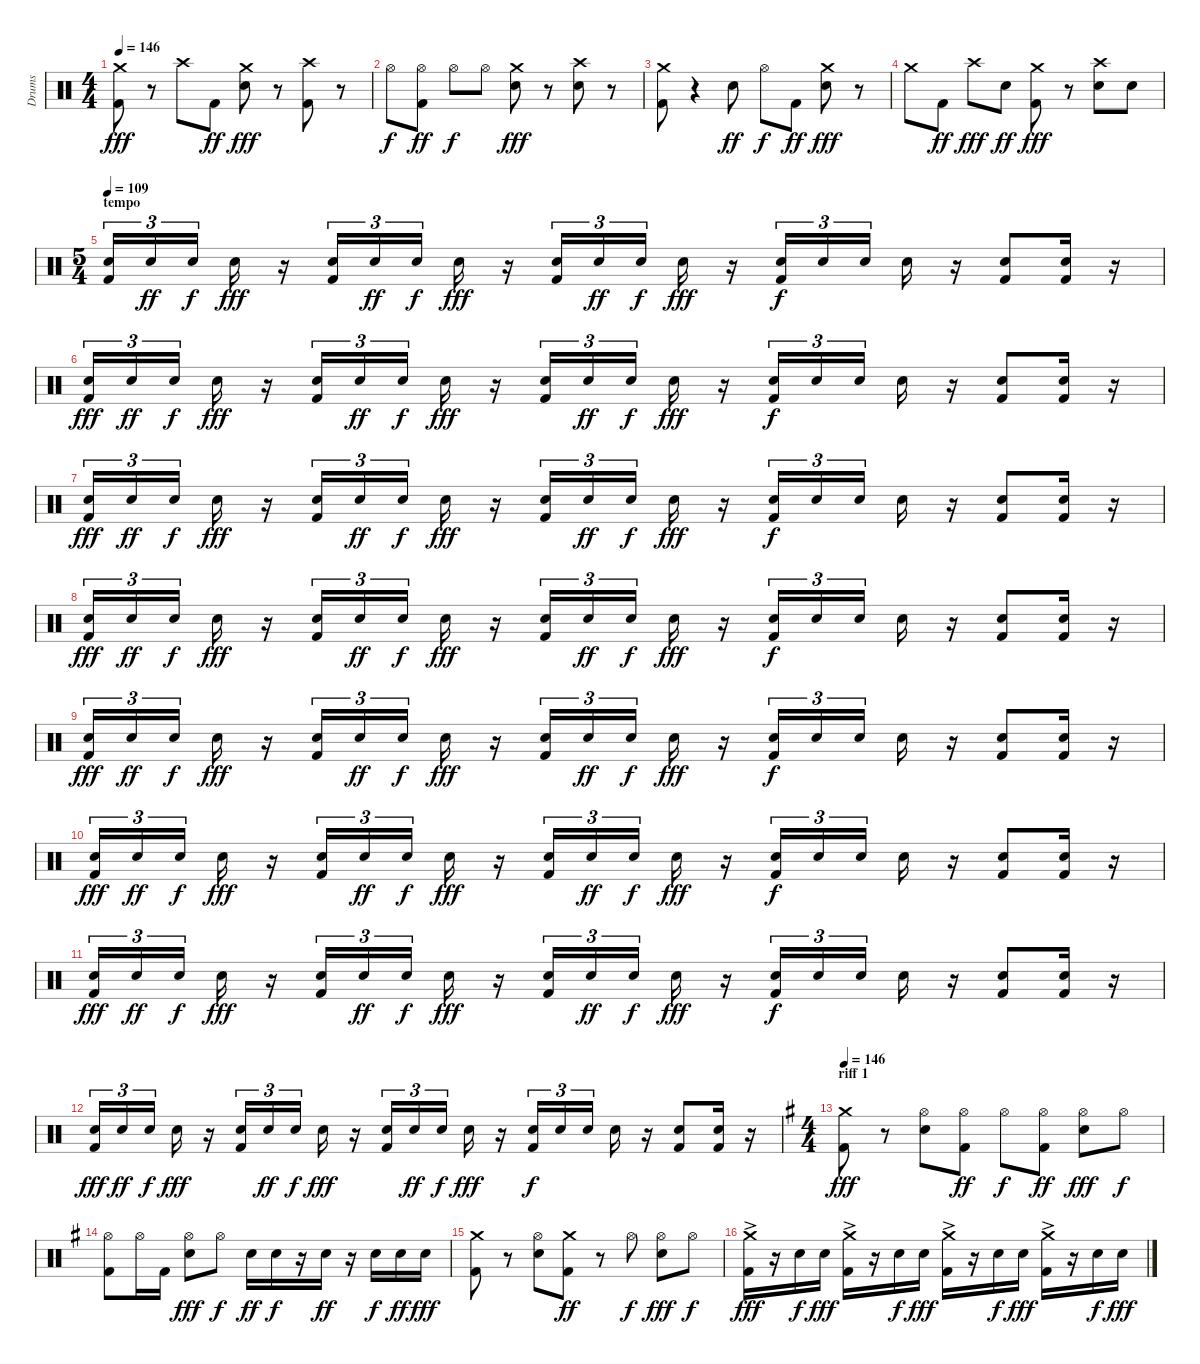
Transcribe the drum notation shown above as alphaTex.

\track ("Drums" "Drums") {instrument percussion}
\staff {score}
\articulation defaults
\ts (4 4)
\tempo 146
\clef neutral
\ks c
("Kick (hit) 2" "Crash medium (hit)").8{dy fff} r.8 "Crash high (hit)".8 "Kick (hit) 2".8{dy ff} ("Snare (hit) 2" "Crash medium (hit)").8{dy fff} r.8 ("Kick (hit) 2" "Crash high (hit)").8 r.8 |
"Hi-Hat (open)".8{dy f} ("Kick (hit) 2" "Hi-Hat (open)").8{dy ff} "Hi-Hat (open)".8{dy f} "Hi-Hat (open)".8 ("Snare (hit) 2" "Crash medium (hit)").8{dy fff} r.8 ("Snare (hit) 2" "Crash high (hit)").8 r.8 |
("Kick (hit) 2" "Crash medium (hit)").8 r.4 "Snare (hit) 2".8{dy ff} "Hi-Hat (open)".8{dy f} "Kick (hit) 2".8{dy ff} ("Snare (hit) 2" "Crash medium (hit)").8{dy fff} r.8 |
"Crash medium (hit)".8 "Kick (hit) 2".8{dy ff} "Crash high (hit)".8{dy fff} "Snare (hit) 2".8{dy ff} ("Kick (hit) 2" "Crash medium (hit)").8{dy fff} r.8 ("Snare (hit) 2" "Crash high (hit)").8 "Snare (hit) 2".8 |
\ts (5 4)
\section ("" "tempo")
\tempo 109
("Snare (hit) 2" "Kick (hit) 2").16{tu (3 2)} "Snare (hit) 2".16{tu (3 2) dy ff} "Snare (hit) 2".16{tu (3 2) dy f} "Snare (hit) 2".16{dy fff} r.16 ("Snare (hit) 2" "Kick (hit) 2").16{tu (3 2)} "Snare (hit) 2".16{tu (3 2) dy ff} "Snare (hit) 2".16{tu (3 2) dy f} "Snare (hit) 2".16{dy fff} r.16 ("Snare (hit) 2" "Kick (hit) 2").16{tu (3 2)} "Snare (hit) 2".16{tu (3 2) dy ff} "Snare (hit) 2".16{tu (3 2) dy f} "Snare (hit) 2".16{dy fff} r.16 ("Snare (hit) 2" "Kick (hit) 2").16{tu (3 2) dy f} "Snare (hit) 2".16{tu (3 2)} "Snare (hit) 2".16{tu (3 2)} "Snare (hit) 2".16 r.16 ("Snare (hit) 2" "Kick (hit) 2").8 ("Snare (hit) 2" "Kick (hit) 2").16 r.16 |
("Snare (hit) 2" "Kick (hit) 2").16{tu (3 2) dy fff} "Snare (hit) 2".16{tu (3 2) dy ff} "Snare (hit) 2".16{tu (3 2) dy f} "Snare (hit) 2".16{dy fff} r.16 ("Snare (hit) 2" "Kick (hit) 2").16{tu (3 2)} "Snare (hit) 2".16{tu (3 2) dy ff} "Snare (hit) 2".16{tu (3 2) dy f} "Snare (hit) 2".16{dy fff} r.16 ("Snare (hit) 2" "Kick (hit) 2").16{tu (3 2)} "Snare (hit) 2".16{tu (3 2) dy ff} "Snare (hit) 2".16{tu (3 2) dy f} "Snare (hit) 2".16{dy fff} r.16 ("Snare (hit) 2" "Kick (hit) 2").16{tu (3 2) dy f} "Snare (hit) 2".16{tu (3 2)} "Snare (hit) 2".16{tu (3 2)} "Snare (hit) 2".16 r.16 ("Snare (hit) 2" "Kick (hit) 2").8 ("Snare (hit) 2" "Kick (hit) 2").16 r.16 |
("Snare (hit) 2" "Kick (hit) 2").16{tu (3 2) dy fff} "Snare (hit) 2".16{tu (3 2) dy ff} "Snare (hit) 2".16{tu (3 2) dy f} "Snare (hit) 2".16{dy fff} r.16 ("Snare (hit) 2" "Kick (hit) 2").16{tu (3 2)} "Snare (hit) 2".16{tu (3 2) dy ff} "Snare (hit) 2".16{tu (3 2) dy f} "Snare (hit) 2".16{dy fff} r.16 ("Snare (hit) 2" "Kick (hit) 2").16{tu (3 2)} "Snare (hit) 2".16{tu (3 2) dy ff} "Snare (hit) 2".16{tu (3 2) dy f} "Snare (hit) 2".16{dy fff} r.16 ("Snare (hit) 2" "Kick (hit) 2").16{tu (3 2) dy f} "Snare (hit) 2".16{tu (3 2)} "Snare (hit) 2".16{tu (3 2)} "Snare (hit) 2".16 r.16 ("Snare (hit) 2" "Kick (hit) 2").8 ("Snare (hit) 2" "Kick (hit) 2").16 r.16 |
("Snare (hit) 2" "Kick (hit) 2").16{tu (3 2) dy fff} "Snare (hit) 2".16{tu (3 2) dy ff} "Snare (hit) 2".16{tu (3 2) dy f} "Snare (hit) 2".16{dy fff} r.16 ("Snare (hit) 2" "Kick (hit) 2").16{tu (3 2)} "Snare (hit) 2".16{tu (3 2) dy ff} "Snare (hit) 2".16{tu (3 2) dy f} "Snare (hit) 2".16{dy fff} r.16 ("Snare (hit) 2" "Kick (hit) 2").16{tu (3 2)} "Snare (hit) 2".16{tu (3 2) dy ff} "Snare (hit) 2".16{tu (3 2) dy f} "Snare (hit) 2".16{dy fff} r.16 ("Snare (hit) 2" "Kick (hit) 2").16{tu (3 2) dy f} "Snare (hit) 2".16{tu (3 2)} "Snare (hit) 2".16{tu (3 2)} "Snare (hit) 2".16 r.16 ("Snare (hit) 2" "Kick (hit) 2").8 ("Snare (hit) 2" "Kick (hit) 2").16 r.16 |
("Snare (hit) 2" "Kick (hit) 2").16{tu (3 2) dy fff} "Snare (hit) 2".16{tu (3 2) dy ff} "Snare (hit) 2".16{tu (3 2) dy f} "Snare (hit) 2".16{dy fff} r.16 ("Snare (hit) 2" "Kick (hit) 2").16{tu (3 2)} "Snare (hit) 2".16{tu (3 2) dy ff} "Snare (hit) 2".16{tu (3 2) dy f} "Snare (hit) 2".16{dy fff} r.16 ("Snare (hit) 2" "Kick (hit) 2").16{tu (3 2)} "Snare (hit) 2".16{tu (3 2) dy ff} "Snare (hit) 2".16{tu (3 2) dy f} "Snare (hit) 2".16{dy fff} r.16 ("Snare (hit) 2" "Kick (hit) 2").16{tu (3 2) dy f} "Snare (hit) 2".16{tu (3 2)} "Snare (hit) 2".16{tu (3 2)} "Snare (hit) 2".16 r.16 ("Snare (hit) 2" "Kick (hit) 2").8 ("Snare (hit) 2" "Kick (hit) 2").16 r.16 |
("Snare (hit) 2" "Kick (hit) 2").16{tu (3 2) dy fff} "Snare (hit) 2".16{tu (3 2) dy ff} "Snare (hit) 2".16{tu (3 2) dy f} "Snare (hit) 2".16{dy fff} r.16 ("Snare (hit) 2" "Kick (hit) 2").16{tu (3 2)} "Snare (hit) 2".16{tu (3 2) dy ff} "Snare (hit) 2".16{tu (3 2) dy f} "Snare (hit) 2".16{dy fff} r.16 ("Snare (hit) 2" "Kick (hit) 2").16{tu (3 2)} "Snare (hit) 2".16{tu (3 2) dy ff} "Snare (hit) 2".16{tu (3 2) dy f} "Snare (hit) 2".16{dy fff} r.16 ("Snare (hit) 2" "Kick (hit) 2").16{tu (3 2) dy f} "Snare (hit) 2".16{tu (3 2)} "Snare (hit) 2".16{tu (3 2)} "Snare (hit) 2".16 r.16 ("Snare (hit) 2" "Kick (hit) 2").8 ("Snare (hit) 2" "Kick (hit) 2").16 r.16 |
("Snare (hit) 2" "Kick (hit) 2").16{tu (3 2) dy fff} "Snare (hit) 2".16{tu (3 2) dy ff} "Snare (hit) 2".16{tu (3 2) dy f} "Snare (hit) 2".16{dy fff} r.16 ("Snare (hit) 2" "Kick (hit) 2").16{tu (3 2)} "Snare (hit) 2".16{tu (3 2) dy ff} "Snare (hit) 2".16{tu (3 2) dy f} "Snare (hit) 2".16{dy fff} r.16 ("Snare (hit) 2" "Kick (hit) 2").16{tu (3 2)} "Snare (hit) 2".16{tu (3 2) dy ff} "Snare (hit) 2".16{tu (3 2) dy f} "Snare (hit) 2".16{dy fff} r.16 ("Snare (hit) 2" "Kick (hit) 2").16{tu (3 2) dy f} "Snare (hit) 2".16{tu (3 2)} "Snare (hit) 2".16{tu (3 2)} "Snare (hit) 2".16 r.16 ("Snare (hit) 2" "Kick (hit) 2").8 ("Snare (hit) 2" "Kick (hit) 2").16 r.16 |
("Snare (hit) 2" "Kick (hit) 2").16{tu (3 2) dy fff} "Snare (hit) 2".16{tu (3 2) dy ff} "Snare (hit) 2".16{tu (3 2) dy f} "Snare (hit) 2".16{dy fff} r.16 ("Snare (hit) 2" "Kick (hit) 2").16{tu (3 2)} "Snare (hit) 2".16{tu (3 2) dy ff} "Snare (hit) 2".16{tu (3 2) dy f} "Snare (hit) 2".16{dy fff} r.16 ("Snare (hit) 2" "Kick (hit) 2").16{tu (3 2)} "Snare (hit) 2".16{tu (3 2) dy ff} "Snare (hit) 2".16{tu (3 2) dy f} "Snare (hit) 2".16{dy fff} r.16 ("Snare (hit) 2" "Kick (hit) 2").16{tu (3 2) dy f} "Snare (hit) 2".16{tu (3 2)} "Snare (hit) 2".16{tu (3 2)} "Snare (hit) 2".16 r.16 ("Snare (hit) 2" "Kick (hit) 2").8 ("Snare (hit) 2" "Kick (hit) 2").16 r.16 |
\ts (4 4)
\section ("" "riff 1")
\tempo 146
\ks g
("Kick (hit) 2" "Crash medium (hit)").8{dy fff} r.8 ("Snare (hit) 2" "Hi-Hat (open)").8 ("Kick (hit) 2" "Hi-Hat (open)").8{dy ff} "Hi-Hat (open)".8{dy f} ("Kick (hit) 2" "Hi-Hat (open)").8{dy ff} ("Snare (hit) 2" "Hi-Hat (open)").8{dy fff} "Hi-Hat (open)".8{dy f} |
("Kick (hit) 2" "Hi-Hat (open)").8 "Hi-Hat (open)".16 "Kick (hit) 2".16 ("Snare (hit) 2" "Hi-Hat (open)").8{dy fff} "Hi-Hat (open)".8{dy f} "Snare (hit) 2".16{dy ff} "Snare (hit) 2".16{dy f} r.16 "Snare (hit) 2".16{dy ff} r.16 "Snare (hit) 2".16{dy f} "Snare (hit) 2".16{dy ff} "Snare (hit) 2".16{dy fff} |
("Kick (hit) 2" "Crash medium (hit)").8 r.8 ("Snare (hit) 2" "Hi-Hat (open)").8 ("Crash medium (hit)" "Kick (hit) 2").8{dy ff} r.8 "Hi-Hat (open)".8{dy f} ("Snare (hit) 2" "Hi-Hat (open)").8{dy fff} "Hi-Hat (open)".8{dy f} |
("Kick (hit) 2"{ac} "Crash medium (hit)"{ac}).16{dy fff} r.16 "Snare (hit) 2".16{dy f} "Snare (hit) 2".16{dy fff} ("Kick (hit) 2"{ac} "Crash medium (hit)"{ac}).16 r.16 "Snare (hit) 2".16{dy f} "Snare (hit) 2".16{dy fff} ("Kick (hit) 2"{ac} "Crash medium (hit)"{ac}).16 r.16 "Snare (hit) 2".16{dy f} "Snare (hit) 2".16{dy fff} ("Kick (hit) 2"{ac} "Crash medium (hit)"{ac}).16 r.16 "Snare (hit) 2".16{dy f} "Snare (hit) 2".16{dy fff}
